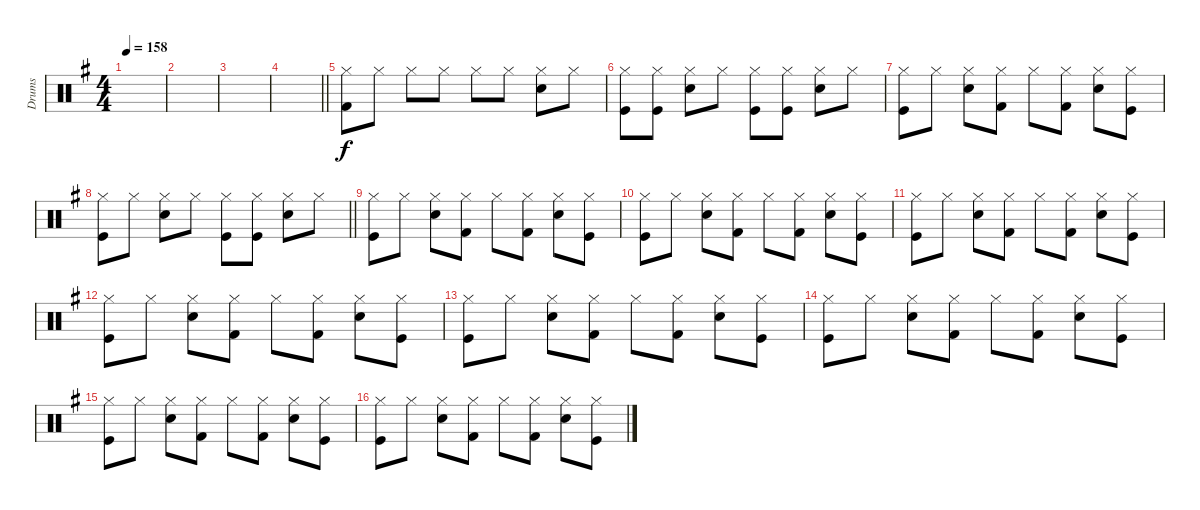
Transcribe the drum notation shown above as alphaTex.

\track ("Drums" "Drums") {instrument percussion}
\staff {score}
\articulation defaults
\ts (4 4)
\tempo 158
\clef neutral
\ks g
|
|
|
\barLineRight lightlight
|
("Hi-Hat (closed)" "Kick (hit) 2").8 "Hi-Hat (closed)".8 "Hi-Hat (closed)".8 "Hi-Hat (closed)".8 "Hi-Hat (closed)".8 "Hi-Hat (closed)".8 ("Hi-Hat (closed)" "Snare (hit) 2").8 "Hi-Hat (closed)".8 |
("Hi-Hat (closed)" "Kick (hit)").8 ("Hi-Hat (closed)" "Kick (hit)").8 ("Hi-Hat (closed)" "Snare (hit) 2").8 "Hi-Hat (closed)".8 ("Hi-Hat (closed)" "Kick (hit)").8 ("Hi-Hat (closed)" "Kick (hit)").8 ("Hi-Hat (closed)" "Snare (hit) 2").8 "Hi-Hat (closed)".8 |
("Hi-Hat (closed)" "Kick (hit)").8 "Hi-Hat (closed)".8 ("Hi-Hat (closed)" "Snare (hit) 2").8 ("Hi-Hat (closed)" "Kick (hit) 2").8 "Hi-Hat (closed)".8 ("Hi-Hat (closed)" "Kick (hit) 2").8 ("Hi-Hat (closed)" "Snare (hit) 2").8 ("Hi-Hat (closed)" "Kick (hit)").8 |
\barLineRight lightlight
("Hi-Hat (closed)" "Kick (hit)").8 "Hi-Hat (closed)".8 ("Hi-Hat (closed)" "Snare (hit) 2").8 "Hi-Hat (closed)".8 ("Hi-Hat (closed)" "Kick (hit)").8 ("Hi-Hat (closed)" "Kick (hit)").8 ("Hi-Hat (closed)" "Snare (hit) 2").8 "Hi-Hat (closed)".8 |
("Hi-Hat (closed)" "Kick (hit)").8 "Hi-Hat (closed)".8 ("Hi-Hat (closed)" "Snare (hit) 2").8 ("Hi-Hat (closed)" "Kick (hit) 2").8 "Hi-Hat (closed)".8 ("Hi-Hat (closed)" "Kick (hit) 2").8 ("Hi-Hat (closed)" "Snare (hit) 2").8 ("Hi-Hat (closed)" "Kick (hit)").8 |
("Hi-Hat (closed)" "Kick (hit)").8 "Hi-Hat (closed)".8 ("Hi-Hat (closed)" "Snare (hit) 2").8 ("Hi-Hat (closed)" "Kick (hit) 2").8 "Hi-Hat (closed)".8 ("Hi-Hat (closed)" "Kick (hit) 2").8 ("Hi-Hat (closed)" "Snare (hit) 2").8 ("Hi-Hat (closed)" "Kick (hit)").8 |
("Hi-Hat (closed)" "Kick (hit)").8 "Hi-Hat (closed)".8 ("Hi-Hat (closed)" "Snare (hit) 2").8 ("Hi-Hat (closed)" "Kick (hit) 2").8 "Hi-Hat (closed)".8 ("Hi-Hat (closed)" "Kick (hit) 2").8 ("Hi-Hat (closed)" "Snare (hit) 2").8 ("Hi-Hat (closed)" "Kick (hit)").8 |
("Hi-Hat (closed)" "Kick (hit)").8 "Hi-Hat (closed)".8 ("Hi-Hat (closed)" "Snare (hit) 2").8 ("Hi-Hat (closed)" "Kick (hit) 2").8 "Hi-Hat (closed)".8 ("Hi-Hat (closed)" "Kick (hit) 2").8 ("Hi-Hat (closed)" "Snare (hit) 2").8 ("Hi-Hat (closed)" "Kick (hit)").8 |
("Hi-Hat (closed)" "Kick (hit)").8 "Hi-Hat (closed)".8 ("Hi-Hat (closed)" "Snare (hit) 2").8 ("Hi-Hat (closed)" "Kick (hit) 2").8 "Hi-Hat (closed)".8 ("Hi-Hat (closed)" "Kick (hit) 2").8 ("Hi-Hat (closed)" "Snare (hit) 2").8 ("Hi-Hat (closed)" "Kick (hit)").8 |
("Hi-Hat (closed)" "Kick (hit)").8 "Hi-Hat (closed)".8 ("Hi-Hat (closed)" "Snare (hit) 2").8 ("Hi-Hat (closed)" "Kick (hit) 2").8 "Hi-Hat (closed)".8 ("Hi-Hat (closed)" "Kick (hit) 2").8 ("Hi-Hat (closed)" "Snare (hit) 2").8 ("Hi-Hat (closed)" "Kick (hit)").8 |
("Hi-Hat (closed)" "Kick (hit)").8 "Hi-Hat (closed)".8 ("Hi-Hat (closed)" "Snare (hit) 2").8 ("Hi-Hat (closed)" "Kick (hit) 2").8 "Hi-Hat (closed)".8 ("Hi-Hat (closed)" "Kick (hit) 2").8 ("Hi-Hat (closed)" "Snare (hit) 2").8 ("Hi-Hat (closed)" "Kick (hit)").8 |
("Hi-Hat (closed)" "Kick (hit)").8 "Hi-Hat (closed)".8 ("Hi-Hat (closed)" "Snare (hit) 2").8 ("Hi-Hat (closed)" "Kick (hit) 2").8 "Hi-Hat (closed)".8 ("Hi-Hat (closed)" "Kick (hit) 2").8 ("Hi-Hat (closed)" "Snare (hit) 2").8 ("Hi-Hat (closed)" "Kick (hit)").8
